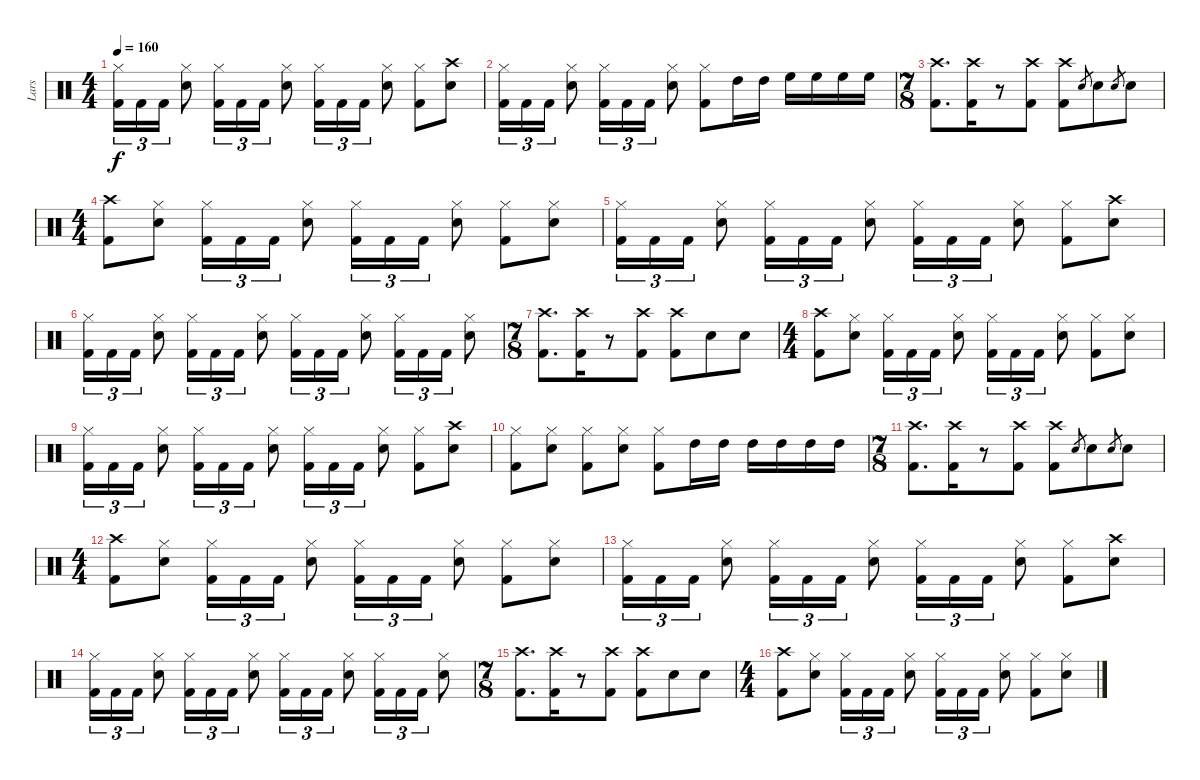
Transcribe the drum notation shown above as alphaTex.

\track ("Lars" "Lars") {instrument percussion}
\staff {score}
\articulation defaults
\ts (4 4)
\tempo 160
\clef neutral
\ks c
("Hi-Hat (closed)" "Kick (hit) 2").16{tu (3 2) dy f} "Kick (hit) 2".16{tu (3 2)} "Kick (hit) 2".16{tu (3 2)} ("Hi-Hat (closed)" "Snare (hit) 2").8 ("Hi-Hat (closed)" "Kick (hit) 2").16{tu (3 2)} "Kick (hit) 2".16{tu (3 2)} "Kick (hit) 2".16{tu (3 2)} ("Hi-Hat (closed)" "Snare (hit) 2").8 ("Hi-Hat (closed)" "Kick (hit) 2").16{tu (3 2)} "Kick (hit) 2".16{tu (3 2)} "Kick (hit) 2".16{tu (3 2)} ("Hi-Hat (closed)" "Snare (hit) 2").8 ("Hi-Hat (closed)" "Kick (hit) 2").8 ("Crash high (hit)" "Snare (hit) 2").8 |
("Hi-Hat (closed)" "Kick (hit) 2").16{tu (3 2)} "Kick (hit) 2".16{tu (3 2)} "Kick (hit) 2".16{tu (3 2)} ("Hi-Hat (closed)" "Snare (hit) 2").8 ("Hi-Hat (closed)" "Kick (hit) 2").16{tu (3 2)} "Kick (hit) 2".16{tu (3 2)} "Kick (hit) 2".16{tu (3 2)} ("Hi-Hat (closed)" "Snare (hit) 2").8 ("Hi-Hat (closed)" "Kick (hit) 2").8 "High Tom (hit)".16 "High Tom (hit)".16 "High Floor Tom (hit)".16 "High Floor Tom (hit)".16 "High Floor Tom (hit)".16 "High Floor Tom (hit)".16 |
\ts (7 8)
("Crash high (hit)" "Kick (hit) 2").8{d} ("Crash high (hit)" "Kick (hit) 2").16 r.8 ("Crash high (hit)" "Kick (hit) 2").8 ("Crash high (hit)" "Kick (hit) 2").8 "Snare (hit) 2".8{gr} "Snare (hit) 2".8 "Snare (hit) 2".8{gr} "Snare (hit) 2".8 |
\ts (4 4)
("Crash high (hit)" "Kick (hit) 2").8 ("Hi-Hat (closed)" "Snare (hit) 2").8 ("Hi-Hat (closed)" "Kick (hit) 2").16{tu (3 2)} "Kick (hit) 2".16{tu (3 2)} "Kick (hit) 2".16{tu (3 2)} ("Hi-Hat (closed)" "Snare (hit) 2").8 ("Hi-Hat (closed)" "Kick (hit) 2").16{tu (3 2)} "Kick (hit) 2".16{tu (3 2)} "Kick (hit) 2".16{tu (3 2)} ("Hi-Hat (closed)" "Snare (hit) 2").8 ("Hi-Hat (closed)" "Kick (hit) 2").8 ("Hi-Hat (closed)" "Snare (hit) 2").8 |
("Hi-Hat (closed)" "Kick (hit) 2").16{tu (3 2)} "Kick (hit) 2".16{tu (3 2)} "Kick (hit) 2".16{tu (3 2)} ("Hi-Hat (closed)" "Snare (hit) 2").8 ("Hi-Hat (closed)" "Kick (hit) 2").16{tu (3 2)} "Kick (hit) 2".16{tu (3 2)} "Kick (hit) 2".16{tu (3 2)} ("Hi-Hat (closed)" "Snare (hit) 2").8 ("Hi-Hat (closed)" "Kick (hit) 2").16{tu (3 2)} "Kick (hit) 2".16{tu (3 2)} "Kick (hit) 2".16{tu (3 2)} ("Hi-Hat (closed)" "Snare (hit) 2").8 ("Hi-Hat (closed)" "Kick (hit) 2").8 ("Crash high (hit)" "Snare (hit) 2").8 |
("Hi-Hat (closed)" "Kick (hit) 2").16{tu (3 2)} "Kick (hit) 2".16{tu (3 2)} "Kick (hit) 2".16{tu (3 2)} ("Hi-Hat (closed)" "Snare (hit) 2").8 ("Hi-Hat (closed)" "Kick (hit) 2").16{tu (3 2)} "Kick (hit) 2".16{tu (3 2)} "Kick (hit) 2".16{tu (3 2)} ("Hi-Hat (closed)" "Snare (hit) 2").8 ("Hi-Hat (closed)" "Kick (hit) 2").16{tu (3 2)} "Kick (hit) 2".16{tu (3 2)} "Kick (hit) 2".16{tu (3 2)} ("Hi-Hat (closed)" "Snare (hit) 2").8 ("Hi-Hat (closed)" "Kick (hit) 2").16{tu (3 2)} "Kick (hit) 2".16{tu (3 2)} "Kick (hit) 2".16{tu (3 2)} ("Hi-Hat (closed)" "Snare (hit) 2").8 |
\ts (7 8)
("Crash high (hit)" "Kick (hit) 2").8{d} ("Crash high (hit)" "Kick (hit) 2").16 r.8 ("Crash high (hit)" "Kick (hit) 2").8 ("Crash high (hit)" "Kick (hit) 2").8 "Snare (hit) 2".8 "Snare (hit) 2".8 |
\ts (4 4)
("Crash high (hit)" "Kick (hit) 2").8 ("Hi-Hat (closed)" "Snare (hit) 2").8 ("Hi-Hat (closed)" "Kick (hit) 2").16{tu (3 2)} "Kick (hit) 2".16{tu (3 2)} "Kick (hit) 2".16{tu (3 2)} ("Hi-Hat (closed)" "Snare (hit) 2").8 ("Hi-Hat (closed)" "Kick (hit) 2").16{tu (3 2)} "Kick (hit) 2".16{tu (3 2)} "Kick (hit) 2".16{tu (3 2)} ("Hi-Hat (closed)" "Snare (hit) 2").8 ("Hi-Hat (closed)" "Kick (hit) 2").8 ("Hi-Hat (closed)" "Snare (hit) 2").8 |
("Hi-Hat (closed)" "Kick (hit) 2").16{tu (3 2)} "Kick (hit) 2".16{tu (3 2)} "Kick (hit) 2".16{tu (3 2)} ("Hi-Hat (closed)" "Snare (hit) 2").8 ("Hi-Hat (closed)" "Kick (hit) 2").16{tu (3 2)} "Kick (hit) 2".16{tu (3 2)} "Kick (hit) 2".16{tu (3 2)} ("Hi-Hat (closed)" "Snare (hit) 2").8 ("Hi-Hat (closed)" "Kick (hit) 2").16{tu (3 2)} "Kick (hit) 2".16{tu (3 2)} "Kick (hit) 2".16{tu (3 2)} ("Hi-Hat (closed)" "Snare (hit) 2").8 ("Hi-Hat (closed)" "Kick (hit) 2").8 ("Crash high (hit)" "Snare (hit) 2").8 |
("Hi-Hat (closed)" "Kick (hit) 2").8 ("Hi-Hat (closed)" "Snare (hit) 2").8 ("Hi-Hat (closed)" "Kick (hit) 2").8 ("Hi-Hat (closed)" "Snare (hit) 2").8 ("Hi-Hat (closed)" "Kick (hit) 2").8 "High Tom (hit)".16 "High Tom (hit)".16 "High Tom (hit)".16 "High Tom (hit)".16 "High Tom (hit)".16 "High Tom (hit)".16 |
\ts (7 8)
("Crash high (hit)" "Kick (hit) 2").8{d} ("Crash high (hit)" "Kick (hit) 2").16 r.8 ("Crash high (hit)" "Kick (hit) 2").8 ("Crash high (hit)" "Kick (hit) 2").8 "Snare (hit) 2".8{gr} "Snare (hit) 2".8 "Snare (hit) 2".8{gr} "Snare (hit) 2".8 |
\ts (4 4)
("Crash high (hit)" "Kick (hit) 2").8 ("Hi-Hat (closed)" "Snare (hit) 2").8 ("Hi-Hat (closed)" "Kick (hit) 2").16{tu (3 2)} "Kick (hit) 2".16{tu (3 2)} "Kick (hit) 2".16{tu (3 2)} ("Hi-Hat (closed)" "Snare (hit) 2").8 ("Hi-Hat (closed)" "Kick (hit) 2").16{tu (3 2)} "Kick (hit) 2".16{tu (3 2)} "Kick (hit) 2".16{tu (3 2)} ("Hi-Hat (closed)" "Snare (hit) 2").8 ("Hi-Hat (closed)" "Kick (hit) 2").8 ("Hi-Hat (closed)" "Snare (hit) 2").8 |
("Hi-Hat (closed)" "Kick (hit) 2").16{tu (3 2)} "Kick (hit) 2".16{tu (3 2)} "Kick (hit) 2".16{tu (3 2)} ("Hi-Hat (closed)" "Snare (hit) 2").8 ("Hi-Hat (closed)" "Kick (hit) 2").16{tu (3 2)} "Kick (hit) 2".16{tu (3 2)} "Kick (hit) 2".16{tu (3 2)} ("Hi-Hat (closed)" "Snare (hit) 2").8 ("Hi-Hat (closed)" "Kick (hit) 2").16{tu (3 2)} "Kick (hit) 2".16{tu (3 2)} "Kick (hit) 2".16{tu (3 2)} ("Hi-Hat (closed)" "Snare (hit) 2").8 ("Hi-Hat (closed)" "Kick (hit) 2").8 ("Crash high (hit)" "Snare (hit) 2").8 |
("Hi-Hat (closed)" "Kick (hit) 2").16{tu (3 2)} "Kick (hit) 2".16{tu (3 2)} "Kick (hit) 2".16{tu (3 2)} ("Hi-Hat (closed)" "Snare (hit) 2").8 ("Hi-Hat (closed)" "Kick (hit) 2").16{tu (3 2)} "Kick (hit) 2".16{tu (3 2)} "Kick (hit) 2".16{tu (3 2)} ("Hi-Hat (closed)" "Snare (hit) 2").8 ("Hi-Hat (closed)" "Kick (hit) 2").16{tu (3 2)} "Kick (hit) 2".16{tu (3 2)} "Kick (hit) 2".16{tu (3 2)} ("Hi-Hat (closed)" "Snare (hit) 2").8 ("Hi-Hat (closed)" "Kick (hit) 2").16{tu (3 2)} "Kick (hit) 2".16{tu (3 2)} "Kick (hit) 2".16{tu (3 2)} ("Hi-Hat (closed)" "Snare (hit) 2").8 |
\ts (7 8)
("Crash high (hit)" "Kick (hit) 2").8{d} ("Crash high (hit)" "Kick (hit) 2").16 r.8 ("Crash high (hit)" "Kick (hit) 2").8 ("Crash high (hit)" "Kick (hit) 2").8 "Snare (hit) 2".8 "Snare (hit) 2".8 |
\ts (4 4)
("Crash high (hit)" "Kick (hit) 2").8 ("Hi-Hat (closed)" "Snare (hit) 2").8 ("Hi-Hat (closed)" "Kick (hit) 2").16{tu (3 2)} "Kick (hit) 2".16{tu (3 2)} "Kick (hit) 2".16{tu (3 2)} ("Hi-Hat (closed)" "Snare (hit) 2").8 ("Hi-Hat (closed)" "Kick (hit) 2").16{tu (3 2)} "Kick (hit) 2".16{tu (3 2)} "Kick (hit) 2".16{tu (3 2)} ("Hi-Hat (closed)" "Snare (hit) 2").8 ("Hi-Hat (closed)" "Kick (hit) 2").8 ("Hi-Hat (closed)" "Snare (hit) 2").8
